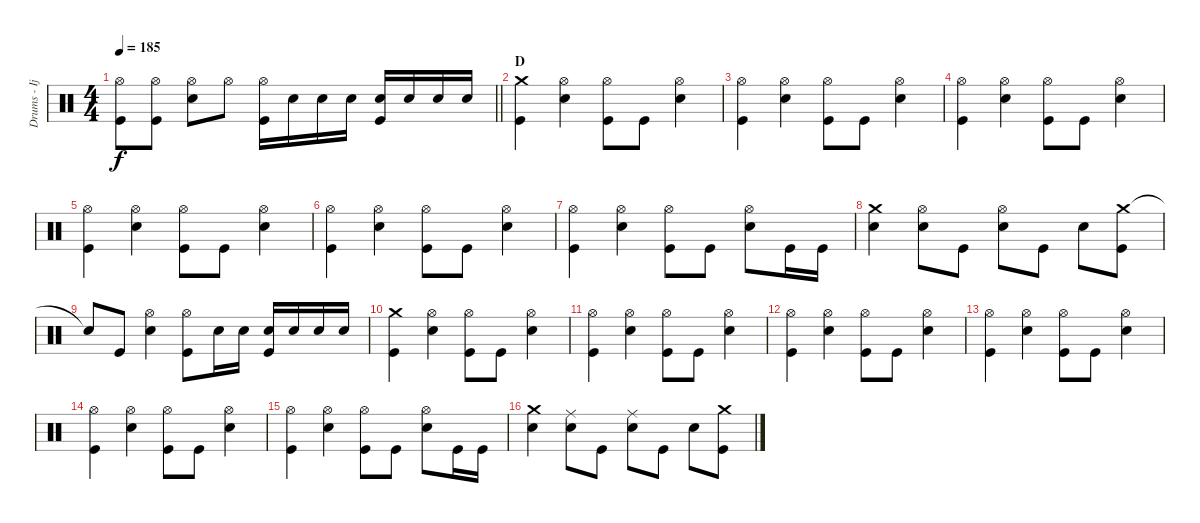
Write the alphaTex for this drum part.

\track ("Drums - Ijichi" "Drums - Ij") {instrument percussion}
\staff {score}
\articulation defaults
\ts (4 4)
\tempo 185
\clef neutral
\barLineRight lightlight
\ks c
("Hi-Hat (open)" "Kick (hit)").8{dy f} ("Hi-Hat (open)" "Kick (hit)").8 ("Hi-Hat (open)" "Electric Snare (hit)").8 "Hi-Hat (open)".8 ("Hi-Hat (open)" "Kick (hit)").16 "Electric Snare (hit)".16 "Electric Snare (hit)".16 "Electric Snare (hit)".16 ("Electric Snare (hit)" "Kick (hit)").16 "Electric Snare (hit)".16 "Electric Snare (hit)".16 "Electric Snare (hit)".16 |
\section ("" "D")
("Crash medium (hit)" "Kick (hit)").4 ("Hi-Hat (open)" "Electric Snare (hit)").4 ("Hi-Hat (open)" "Kick (hit)").8 "Kick (hit)".8 ("Hi-Hat (open)" "Electric Snare (hit)").4 |
("Hi-Hat (open)" "Kick (hit)").4 ("Hi-Hat (open)" "Electric Snare (hit)").4 ("Hi-Hat (open)" "Kick (hit)").8 "Kick (hit)".8 ("Hi-Hat (open)" "Electric Snare (hit)").4 |
("Hi-Hat (open)" "Kick (hit)").4 ("Hi-Hat (open)" "Electric Snare (hit)").4 ("Hi-Hat (open)" "Kick (hit)").8 "Kick (hit)".8 ("Hi-Hat (open)" "Electric Snare (hit)").4 |
("Hi-Hat (open)" "Kick (hit)").4 ("Hi-Hat (open)" "Electric Snare (hit)").4 ("Hi-Hat (open)" "Kick (hit)").8 "Kick (hit)".8 ("Hi-Hat (open)" "Electric Snare (hit)").4 |
("Hi-Hat (open)" "Kick (hit)").4 ("Hi-Hat (open)" "Electric Snare (hit)").4 ("Hi-Hat (open)" "Kick (hit)").8 "Kick (hit)".8 ("Hi-Hat (open)" "Electric Snare (hit)").4 |
("Hi-Hat (open)" "Kick (hit)").4 ("Hi-Hat (open)" "Electric Snare (hit)").4 ("Hi-Hat (open)" "Kick (hit)").8 "Kick (hit)".8 ("Hi-Hat (open)" "Electric Snare (hit)").8 "Kick (hit)".16 "Kick (hit)".16 |
("Crash medium (hit)" "Electric Snare (hit)").4 ("Hi-Hat (open)" "Electric Snare (hit)").8 "Kick (hit)".8 ("Hi-Hat (open)" "Electric Snare (hit)").8 "Kick (hit)".8 "Electric Snare (hit)".8 ("Crash medium (hit)" "Kick (hit)").8 |
"Snare (hit)"{t}.8 "Kick (hit)".8 ("Hi-Hat (open)" "Electric Snare (hit)").4 ("Hi-Hat (open)" "Kick (hit)").8 "Electric Snare (hit)".16 "Electric Snare (hit)".16 ("Electric Snare (hit)" "Kick (hit)").16 "Electric Snare (hit)".16 "Electric Snare (hit)".16 "Electric Snare (hit)".16 |
("Crash medium (hit)" "Kick (hit)").4 ("Hi-Hat (open)" "Electric Snare (hit)").4 ("Hi-Hat (open)" "Kick (hit)").8 "Kick (hit)".8 ("Hi-Hat (open)" "Electric Snare (hit)").4 |
("Hi-Hat (open)" "Kick (hit)").4 ("Hi-Hat (open)" "Electric Snare (hit)").4 ("Hi-Hat (open)" "Kick (hit)").8 "Kick (hit)".8 ("Hi-Hat (open)" "Electric Snare (hit)").4 |
("Hi-Hat (open)" "Kick (hit)").4 ("Hi-Hat (open)" "Electric Snare (hit)").4 ("Hi-Hat (open)" "Kick (hit)").8 "Kick (hit)".8 ("Hi-Hat (open)" "Electric Snare (hit)").4 |
("Hi-Hat (open)" "Kick (hit)").4 ("Hi-Hat (open)" "Electric Snare (hit)").4 ("Hi-Hat (open)" "Kick (hit)").8 "Kick (hit)".8 ("Hi-Hat (open)" "Electric Snare (hit)").4 |
("Hi-Hat (open)" "Kick (hit)").4 ("Hi-Hat (open)" "Electric Snare (hit)").4 ("Hi-Hat (open)" "Kick (hit)").8 "Kick (hit)".8 ("Hi-Hat (open)" "Electric Snare (hit)").4 |
("Hi-Hat (open)" "Kick (hit)").4 ("Hi-Hat (open)" "Electric Snare (hit)").4 ("Hi-Hat (open)" "Kick (hit)").8 "Kick (hit)".8 ("Hi-Hat (open)" "Electric Snare (hit)").8 "Kick (hit)".16 "Kick (hit)".16 |
("Crash medium (hit)" "Electric Snare (hit)").4 ("Ride (middle)" "Electric Snare (hit)").8 "Kick (hit)".8 ("Ride (middle)" "Electric Snare (hit)").8 "Kick (hit)".8 "Electric Snare (hit)".8 ("Crash medium (hit)" "Kick (hit)").8
